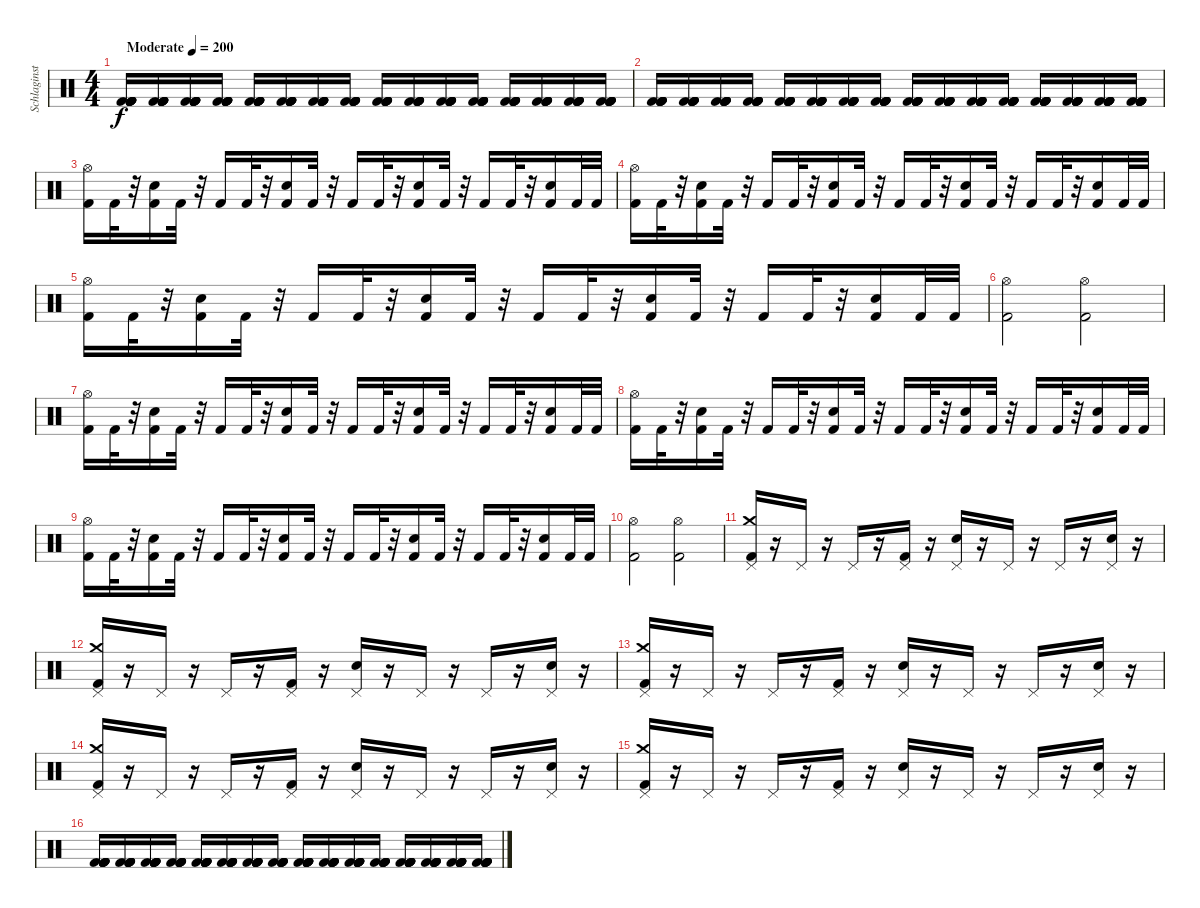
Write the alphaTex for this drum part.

\track ("Schlaginstrumente - Auswahl" "Schlaginst") {instrument percussion}
\staff {score}
\articulation defaults
\ts (4 4)
\tempo (200 "Moderate")
\clef neutral
\ks c
("Kick (hit) 2" "Kick (hit) 2" "Kick (hit) 2" "Kick (hit) 2" "Kick (hit) 2" "Kick (hit) 2").16{dy f} ("Kick (hit) 2" "Kick (hit) 2" "Kick (hit) 2" "Kick (hit) 2" "Kick (hit) 2" "Kick (hit) 2").16 ("Kick (hit) 2" "Kick (hit) 2" "Kick (hit) 2" "Kick (hit) 2" "Kick (hit) 2" "Kick (hit) 2").16 ("Kick (hit) 2" "Kick (hit) 2" "Kick (hit) 2" "Kick (hit) 2" "Kick (hit) 2" "Kick (hit) 2").16 ("Kick (hit) 2" "Kick (hit) 2" "Kick (hit) 2" "Kick (hit) 2" "Kick (hit) 2" "Kick (hit) 2").16 ("Kick (hit) 2" "Kick (hit) 2" "Kick (hit) 2" "Kick (hit) 2" "Kick (hit) 2" "Kick (hit) 2").16 ("Kick (hit) 2" "Kick (hit) 2" "Kick (hit) 2" "Kick (hit) 2" "Kick (hit) 2" "Kick (hit) 2").16 ("Kick (hit) 2" "Kick (hit) 2" "Kick (hit) 2" "Kick (hit) 2" "Kick (hit) 2" "Kick (hit) 2").16 ("Kick (hit) 2" "Kick (hit) 2" "Kick (hit) 2" "Kick (hit) 2" "Kick (hit) 2" "Kick (hit) 2").16 ("Kick (hit) 2" "Kick (hit) 2" "Kick (hit) 2" "Kick (hit) 2" "Kick (hit) 2" "Kick (hit) 2").16 ("Kick (hit) 2" "Kick (hit) 2" "Kick (hit) 2" "Kick (hit) 2" "Kick (hit) 2" "Kick (hit) 2").16 ("Kick (hit) 2" "Kick (hit) 2" "Kick (hit) 2" "Kick (hit) 2" "Kick (hit) 2" "Kick (hit) 2").16 ("Kick (hit) 2" "Kick (hit) 2" "Kick (hit) 2" "Kick (hit) 2" "Kick (hit) 2" "Kick (hit) 2").16 ("Kick (hit) 2" "Kick (hit) 2" "Kick (hit) 2" "Kick (hit) 2" "Kick (hit) 2" "Kick (hit) 2").16 ("Kick (hit) 2" "Kick (hit) 2" "Kick (hit) 2" "Kick (hit) 2" "Kick (hit) 2" "Kick (hit) 2").16 ("Kick (hit) 2" "Kick (hit) 2" "Kick (hit) 2" "Kick (hit) 2" "Kick (hit) 2" "Kick (hit) 2").16 |
("Kick (hit) 2" "Kick (hit) 2" "Kick (hit) 2" "Kick (hit) 2" "Kick (hit) 2" "Kick (hit) 2").16 ("Kick (hit) 2" "Kick (hit) 2" "Kick (hit) 2" "Kick (hit) 2" "Kick (hit) 2" "Kick (hit) 2").16 ("Kick (hit) 2" "Kick (hit) 2" "Kick (hit) 2" "Kick (hit) 2" "Kick (hit) 2" "Kick (hit) 2").16 ("Kick (hit) 2" "Kick (hit) 2" "Kick (hit) 2" "Kick (hit) 2" "Kick (hit) 2" "Kick (hit) 2").16 ("Kick (hit) 2" "Kick (hit) 2" "Kick (hit) 2" "Kick (hit) 2" "Kick (hit) 2" "Kick (hit) 2").16 ("Kick (hit) 2" "Kick (hit) 2" "Kick (hit) 2" "Kick (hit) 2" "Kick (hit) 2" "Kick (hit) 2").16 ("Kick (hit) 2" "Kick (hit) 2" "Kick (hit) 2" "Kick (hit) 2" "Kick (hit) 2" "Kick (hit) 2").16 ("Kick (hit) 2" "Kick (hit) 2" "Kick (hit) 2" "Kick (hit) 2" "Kick (hit) 2" "Kick (hit) 2").16 ("Kick (hit) 2" "Kick (hit) 2" "Kick (hit) 2" "Kick (hit) 2" "Kick (hit) 2" "Kick (hit) 2").16 ("Kick (hit) 2" "Kick (hit) 2" "Kick (hit) 2" "Kick (hit) 2" "Kick (hit) 2" "Kick (hit) 2").16 ("Kick (hit) 2" "Kick (hit) 2" "Kick (hit) 2" "Kick (hit) 2" "Kick (hit) 2" "Kick (hit) 2").16 ("Kick (hit) 2" "Kick (hit) 2" "Kick (hit) 2" "Kick (hit) 2" "Kick (hit) 2" "Kick (hit) 2").16 ("Kick (hit) 2" "Kick (hit) 2" "Kick (hit) 2" "Kick (hit) 2" "Kick (hit) 2" "Kick (hit) 2").16 ("Kick (hit) 2" "Kick (hit) 2" "Kick (hit) 2" "Kick (hit) 2" "Kick (hit) 2" "Kick (hit) 2").16 ("Kick (hit) 2" "Kick (hit) 2" "Kick (hit) 2" "Kick (hit) 2" "Kick (hit) 2" "Kick (hit) 2").16 ("Kick (hit) 2" "Kick (hit) 2" "Kick (hit) 2" "Kick (hit) 2" "Kick (hit) 2" "Kick (hit) 2").16 |
("Hi-Hat (open)" "Kick (hit) 2").16 "Kick (hit) 2".32 r.32 ("Electric Snare (hit)" "Kick (hit) 2").16 "Kick (hit) 2".32 r.32 "Kick (hit) 2".16 "Kick (hit) 2".32 r.32 ("Electric Snare (hit)" "Kick (hit) 2").16 "Kick (hit) 2".32 r.32 "Kick (hit) 2".16 "Kick (hit) 2".32 r.32 ("Electric Snare (hit)" "Kick (hit) 2").16 "Kick (hit) 2".32 r.32 "Kick (hit) 2".16 "Kick (hit) 2".32 r.32 ("Electric Snare (hit)" "Kick (hit) 2").16 "Kick (hit) 2".32 "Kick (hit) 2".32 |
("Hi-Hat (open)" "Kick (hit) 2").16 "Kick (hit) 2".32 r.32 ("Electric Snare (hit)" "Kick (hit) 2").16 "Kick (hit) 2".32 r.32 "Kick (hit) 2".16 "Kick (hit) 2".32 r.32 ("Electric Snare (hit)" "Kick (hit) 2").16 "Kick (hit) 2".32 r.32 "Kick (hit) 2".16 "Kick (hit) 2".32 r.32 ("Electric Snare (hit)" "Kick (hit) 2").16 "Kick (hit) 2".32 r.32 "Kick (hit) 2".16 "Kick (hit) 2".32 r.32 ("Electric Snare (hit)" "Kick (hit) 2").16 "Kick (hit) 2".32 "Kick (hit) 2".32 |
("Hi-Hat (open)" "Kick (hit) 2").16 "Kick (hit) 2".32 r.32 ("Electric Snare (hit)" "Kick (hit) 2").16 "Kick (hit) 2".32 r.32 "Kick (hit) 2".16 "Kick (hit) 2".32 r.32 ("Electric Snare (hit)" "Kick (hit) 2").16 "Kick (hit) 2".32 r.32 "Kick (hit) 2".16 "Kick (hit) 2".32 r.32 ("Electric Snare (hit)" "Kick (hit) 2").16 "Kick (hit) 2".32 r.32 "Kick (hit) 2".16 "Kick (hit) 2".32 r.32 ("Electric Snare (hit)" "Kick (hit) 2").16 "Kick (hit) 2".32 "Kick (hit) 2".32 |
("Hi-Hat (open)" "Kick (hit) 2").2 ("Hi-Hat (open)" "Kick (hit) 2").2 |
("Hi-Hat (open)" "Kick (hit) 2").16 "Kick (hit) 2".32 r.32 ("Electric Snare (hit)" "Kick (hit) 2").16 "Kick (hit) 2".32 r.32 "Kick (hit) 2".16 "Kick (hit) 2".32 r.32 ("Electric Snare (hit)" "Kick (hit) 2").16 "Kick (hit) 2".32 r.32 "Kick (hit) 2".16 "Kick (hit) 2".32 r.32 ("Electric Snare (hit)" "Kick (hit) 2").16 "Kick (hit) 2".32 r.32 "Kick (hit) 2".16 "Kick (hit) 2".32 r.32 ("Electric Snare (hit)" "Kick (hit) 2").16 "Kick (hit) 2".32 "Kick (hit) 2".32 |
("Hi-Hat (open)" "Kick (hit) 2").16 "Kick (hit) 2".32 r.32 ("Electric Snare (hit)" "Kick (hit) 2").16 "Kick (hit) 2".32 r.32 "Kick (hit) 2".16 "Kick (hit) 2".32 r.32 ("Electric Snare (hit)" "Kick (hit) 2").16 "Kick (hit) 2".32 r.32 "Kick (hit) 2".16 "Kick (hit) 2".32 r.32 ("Electric Snare (hit)" "Kick (hit) 2").16 "Kick (hit) 2".32 r.32 "Kick (hit) 2".16 "Kick (hit) 2".32 r.32 ("Electric Snare (hit)" "Kick (hit) 2").16 "Kick (hit) 2".32 "Kick (hit) 2".32 |
("Hi-Hat (open)" "Kick (hit) 2").16 "Kick (hit) 2".32 r.32 ("Electric Snare (hit)" "Kick (hit) 2").16 "Kick (hit) 2".32 r.32 "Kick (hit) 2".16 "Kick (hit) 2".32 r.32 ("Electric Snare (hit)" "Kick (hit) 2").16 "Kick (hit) 2".32 r.32 "Kick (hit) 2".16 "Kick (hit) 2".32 r.32 ("Electric Snare (hit)" "Kick (hit) 2").16 "Kick (hit) 2".32 r.32 "Kick (hit) 2".16 "Kick (hit) 2".32 r.32 ("Electric Snare (hit)" "Kick (hit) 2").16 "Kick (hit) 2".32 "Kick (hit) 2".32 |
("Hi-Hat (open)" "Kick (hit) 2").2 ("Hi-Hat (open)" "Kick (hit) 2").2 |
("Crash medium (hit)" "Pedal Hi-Hat (hit)" "Kick (hit) 2").16 r.16 "Pedal Hi-Hat (hit)".16 r.16 "Pedal Hi-Hat (hit)".16 r.16 ("Pedal Hi-Hat (hit)" "Kick (hit) 2").16 r.16 ("Pedal Hi-Hat (hit)" "Electric Snare (hit)").16 r.16 "Pedal Hi-Hat (hit)".16 r.16 "Pedal Hi-Hat (hit)".16 r.16 ("Pedal Hi-Hat (hit)" "Electric Snare (hit)").16 r.16 |
("Crash medium (hit)" "Pedal Hi-Hat (hit)" "Kick (hit) 2").16 r.16 "Pedal Hi-Hat (hit)".16 r.16 "Pedal Hi-Hat (hit)".16 r.16 ("Pedal Hi-Hat (hit)" "Kick (hit) 2").16 r.16 ("Pedal Hi-Hat (hit)" "Electric Snare (hit)").16 r.16 "Pedal Hi-Hat (hit)".16 r.16 "Pedal Hi-Hat (hit)".16 r.16 ("Pedal Hi-Hat (hit)" "Electric Snare (hit)").16 r.16 |
("Crash medium (hit)" "Pedal Hi-Hat (hit)" "Kick (hit) 2").16 r.16 "Pedal Hi-Hat (hit)".16 r.16 "Pedal Hi-Hat (hit)".16 r.16 ("Pedal Hi-Hat (hit)" "Kick (hit) 2").16 r.16 ("Pedal Hi-Hat (hit)" "Electric Snare (hit)").16 r.16 "Pedal Hi-Hat (hit)".16 r.16 "Pedal Hi-Hat (hit)".16 r.16 ("Pedal Hi-Hat (hit)" "Electric Snare (hit)").16 r.16 |
("Crash medium (hit)" "Pedal Hi-Hat (hit)" "Kick (hit) 2").16 r.16 "Pedal Hi-Hat (hit)".16 r.16 "Pedal Hi-Hat (hit)".16 r.16 ("Pedal Hi-Hat (hit)" "Kick (hit) 2").16 r.16 ("Pedal Hi-Hat (hit)" "Electric Snare (hit)").16 r.16 "Pedal Hi-Hat (hit)".16 r.16 "Pedal Hi-Hat (hit)".16 r.16 ("Pedal Hi-Hat (hit)" "Electric Snare (hit)").16 r.16 |
("Crash medium (hit)" "Pedal Hi-Hat (hit)" "Kick (hit) 2").16 r.16 "Pedal Hi-Hat (hit)".16 r.16 "Pedal Hi-Hat (hit)".16 r.16 ("Pedal Hi-Hat (hit)" "Kick (hit) 2").16 r.16 ("Pedal Hi-Hat (hit)" "Electric Snare (hit)").16 r.16 "Pedal Hi-Hat (hit)".16 r.16 "Pedal Hi-Hat (hit)".16 r.16 ("Pedal Hi-Hat (hit)" "Electric Snare (hit)").16 r.16 |
("Kick (hit) 2" "Kick (hit) 2" "Kick (hit) 2" "Kick (hit) 2" "Kick (hit) 2" "Kick (hit) 2").16 ("Kick (hit) 2" "Kick (hit) 2" "Kick (hit) 2" "Kick (hit) 2" "Kick (hit) 2" "Kick (hit) 2").16 ("Kick (hit) 2" "Kick (hit) 2" "Kick (hit) 2" "Kick (hit) 2" "Kick (hit) 2" "Kick (hit) 2").16 ("Kick (hit) 2" "Kick (hit) 2" "Kick (hit) 2" "Kick (hit) 2" "Kick (hit) 2" "Kick (hit) 2").16 ("Kick (hit) 2" "Kick (hit) 2" "Kick (hit) 2" "Kick (hit) 2" "Kick (hit) 2" "Kick (hit) 2").16 ("Kick (hit) 2" "Kick (hit) 2" "Kick (hit) 2" "Kick (hit) 2" "Kick (hit) 2" "Kick (hit) 2").16 ("Kick (hit) 2" "Kick (hit) 2" "Kick (hit) 2" "Kick (hit) 2" "Kick (hit) 2" "Kick (hit) 2").16 ("Kick (hit) 2" "Kick (hit) 2" "Kick (hit) 2" "Kick (hit) 2" "Kick (hit) 2" "Kick (hit) 2").16 ("Kick (hit) 2" "Kick (hit) 2" "Kick (hit) 2" "Kick (hit) 2" "Kick (hit) 2" "Kick (hit) 2").16 ("Kick (hit) 2" "Kick (hit) 2" "Kick (hit) 2" "Kick (hit) 2" "Kick (hit) 2" "Kick (hit) 2").16 ("Kick (hit) 2" "Kick (hit) 2" "Kick (hit) 2" "Kick (hit) 2" "Kick (hit) 2" "Kick (hit) 2").16 ("Kick (hit) 2" "Kick (hit) 2" "Kick (hit) 2" "Kick (hit) 2" "Kick (hit) 2" "Kick (hit) 2").16 ("Kick (hit) 2" "Kick (hit) 2" "Kick (hit) 2" "Kick (hit) 2" "Kick (hit) 2" "Kick (hit) 2").16 ("Kick (hit) 2" "Kick (hit) 2" "Kick (hit) 2" "Kick (hit) 2" "Kick (hit) 2" "Kick (hit) 2").16 ("Kick (hit) 2" "Kick (hit) 2" "Kick (hit) 2" "Kick (hit) 2" "Kick (hit) 2" "Kick (hit) 2").16 ("Kick (hit) 2" "Kick (hit) 2" "Kick (hit) 2" "Kick (hit) 2" "Kick (hit) 2" "Kick (hit) 2").16
